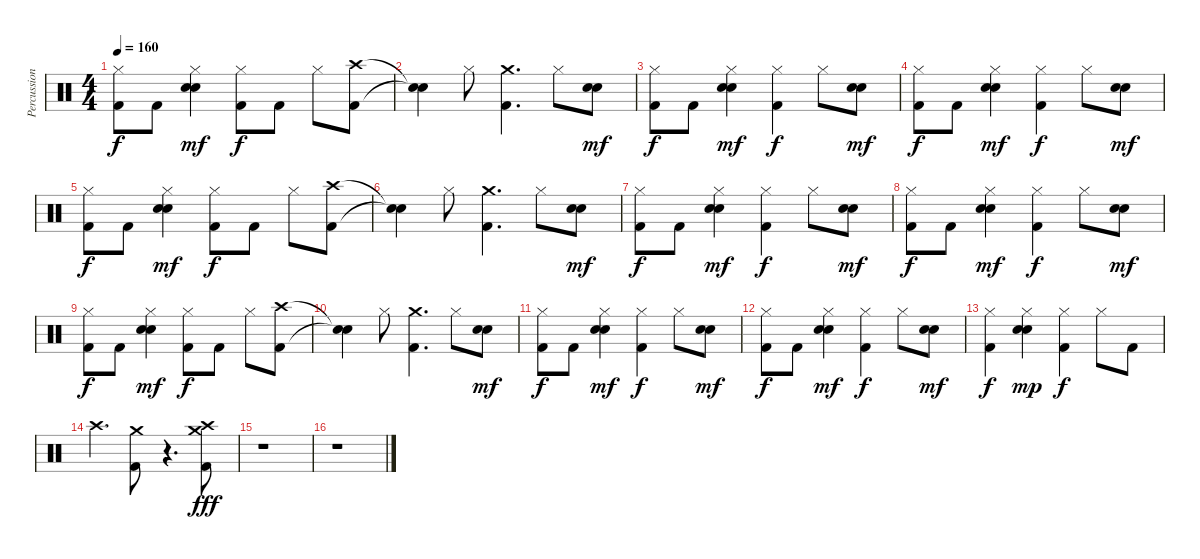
\track ("Percussion" "Percussion") {instrument percussion}
\staff {score}
\articulation defaults
\ts (4 4)
\tempo 160
\clef neutral
\ks c
("Kick (hit) 2" "Hi-Hat (closed)").8{dy f} "Kick (hit) 2".8 ("Snare (hit) 2" "Hi-Hat (closed)" "Electric Snare (hit)").4{dy mf} ("Kick (hit) 2" "Hi-Hat (closed)").8{dy f} "Kick (hit) 2".8 "Hi-Hat (closed)".8 ("Crash high (hit)" "Kick (hit) 2").8 |
("Snare (hit)"{t} "Snare (hit)"{t}).4 "Hi-Hat (closed)".8 ("Crash medium (hit)" "Kick (hit) 2").4{d} "Hi-Hat (closed)".8 ("Snare (hit) 2" "Electric Snare (hit)").8{dy mf} |
("Hi-Hat (closed)" "Kick (hit) 2").8{dy f} "Kick (hit) 2".8 ("Hi-Hat (closed)" "Snare (hit) 2" "Electric Snare (hit)").4{dy mf} ("Hi-Hat (closed)" "Kick (hit) 2").4{dy f} "Hi-Hat (closed)".8 ("Snare (hit) 2" "Electric Snare (hit)").8{dy mf} |
("Hi-Hat (closed)" "Kick (hit) 2").8{dy f} "Kick (hit) 2".8 ("Hi-Hat (closed)" "Snare (hit) 2" "Electric Snare (hit)").4{dy mf} ("Hi-Hat (closed)" "Kick (hit) 2").4{dy f} "Hi-Hat (closed)".8 ("Snare (hit) 2" "Electric Snare (hit)").8{dy mf} |
("Kick (hit) 2" "Hi-Hat (closed)").8{dy f} "Kick (hit) 2".8 ("Snare (hit) 2" "Hi-Hat (closed)" "Electric Snare (hit)").4{dy mf} ("Kick (hit) 2" "Hi-Hat (closed)").8{dy f} "Kick (hit) 2".8 "Hi-Hat (closed)".8 ("Crash high (hit)" "Kick (hit) 2").8 |
("Snare (hit)"{t} "Snare (hit)"{t}).4 "Hi-Hat (closed)".8 ("Crash medium (hit)" "Kick (hit) 2").4{d} "Hi-Hat (closed)".8 ("Snare (hit) 2" "Electric Snare (hit)").8{dy mf} |
("Hi-Hat (closed)" "Kick (hit) 2").8{dy f} "Kick (hit) 2".8 ("Hi-Hat (closed)" "Snare (hit) 2" "Electric Snare (hit)").4{dy mf} ("Hi-Hat (closed)" "Kick (hit) 2").4{dy f} "Hi-Hat (closed)".8 ("Snare (hit) 2" "Electric Snare (hit)").8{dy mf} |
("Hi-Hat (closed)" "Kick (hit) 2").8{dy f} "Kick (hit) 2".8 ("Hi-Hat (closed)" "Snare (hit) 2" "Electric Snare (hit)").4{dy mf} ("Hi-Hat (closed)" "Kick (hit) 2").4{dy f} "Hi-Hat (closed)".8 ("Snare (hit) 2" "Electric Snare (hit)").8{dy mf} |
("Kick (hit) 2" "Hi-Hat (closed)").8{dy f} "Kick (hit) 2".8 ("Snare (hit) 2" "Hi-Hat (closed)" "Electric Snare (hit)").4{dy mf} ("Kick (hit) 2" "Hi-Hat (closed)").8{dy f} "Kick (hit) 2".8 "Hi-Hat (closed)".8 ("Crash high (hit)" "Kick (hit) 2").8 |
("Snare (hit)"{t} "Snare (hit)"{t}).4 "Hi-Hat (closed)".8 ("Crash medium (hit)" "Kick (hit) 2").4{d} "Hi-Hat (closed)".8 ("Snare (hit) 2" "Electric Snare (hit)").8{dy mf} |
("Hi-Hat (closed)" "Kick (hit) 2").8{dy f} "Kick (hit) 2".8 ("Hi-Hat (closed)" "Snare (hit) 2" "Electric Snare (hit)").4{dy mf} ("Hi-Hat (closed)" "Kick (hit) 2").4{dy f} "Hi-Hat (closed)".8 ("Snare (hit) 2" "Electric Snare (hit)").8{dy mf} |
("Hi-Hat (closed)" "Kick (hit) 2").8{dy f} "Kick (hit) 2".8 ("Hi-Hat (closed)" "Snare (hit) 2" "Electric Snare (hit)").4{dy mf} ("Hi-Hat (closed)" "Kick (hit) 2").4{dy f} "Hi-Hat (closed)".8 ("Snare (hit) 2" "Electric Snare (hit)").8{dy mf} |
("Hi-Hat (closed)" "Kick (hit) 2").4{dy f} ("Hi-Hat (closed)" "Snare (hit) 2" "Electric Snare (hit)").4{dy mp} ("Hi-Hat (closed)" "Kick (hit) 2").4{dy f} "Hi-Hat (closed)".8 "Kick (hit) 2".8 |
"Crash high (hit)".4{d} ("Kick (hit) 2" "Crash medium (hit)").8 r.4{d} ("Crash medium (hit)" "Kick (hit) 2" "Crash high (hit)").8{dy fff} |
r.1 |
r.1
